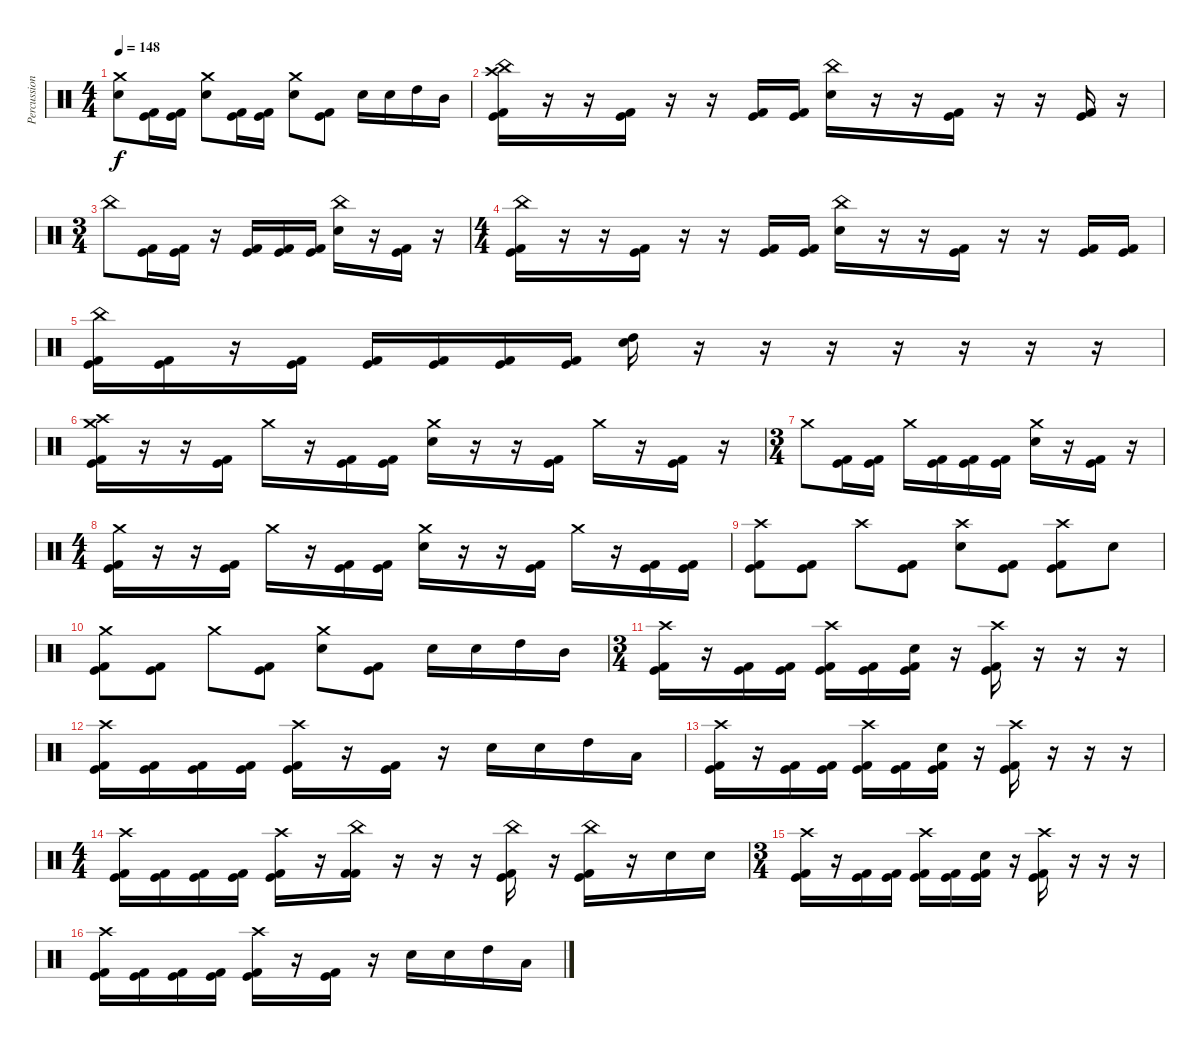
\track ("Percussioni" "Percussion") {instrument percussion}
\staff {score}
\articulation defaults
\ts (4 4)
\tempo 148
\clef neutral
\ks c
("Crash medium (hit)" "Snare (hit) 2").8{dy f} ("Kick (hit)" "Kick (hit) 2").16 ("Kick (hit)" "Kick (hit) 2").16 ("Crash medium (hit)" "Snare (hit) 2").8 ("Kick (hit)" "Kick (hit) 2").16 ("Kick (hit)" "Kick (hit) 2").16 ("Crash medium (hit)" "Snare (hit) 2").8 ("Kick (hit)" "Kick (hit) 2").8 "Snare (hit) 2".16 "Snare (hit) 2".16 "High Tom (hit)".16 "Mid Tom (hit)".16 |
("Crash high (hit)" "China (hit)" "Kick (hit)" "Kick (hit) 2").16 r.16 r.16 ("Kick (hit)" "Kick (hit) 2").16 r.16 r.16 ("Kick (hit)" "Kick (hit) 2").16 ("Kick (hit)" "Kick (hit) 2").16 ("China (hit)" "Snare (hit) 2").16 r.16 r.16 ("Kick (hit)" "Kick (hit) 2").16 r.16 r.16 ("Kick (hit)" "Kick (hit) 2").16 r.16 |
\ts (3 4)
"China (hit)".8 ("Kick (hit)" "Kick (hit) 2").16 ("Kick (hit)" "Kick (hit) 2").16 r.16 ("Kick (hit) 2" "Kick (hit)").16 ("Kick (hit)" "Kick (hit) 2").16 ("Kick (hit) 2" "Kick (hit)").16 ("China (hit)" "Snare (hit) 2").16 r.16 ("Kick (hit)" "Kick (hit) 2").16 r.16 |
\ts (4 4)
("China (hit)" "Kick (hit)" "Kick (hit) 2").16 r.16 r.16 ("Kick (hit)" "Kick (hit) 2").16 r.16 r.16 ("Kick (hit)" "Kick (hit) 2").16 ("Kick (hit)" "Kick (hit) 2").16 ("China (hit)" "Snare (hit) 2").16 r.16 r.16 ("Kick (hit)" "Kick (hit) 2").16 r.16 r.16 ("Kick (hit)" "Kick (hit) 2").16 ("Kick (hit)" "Kick (hit) 2").16 |
("China (hit)" "Kick (hit) 2" "Kick (hit)").16 ("Kick (hit)" "Kick (hit) 2").16 r.16 ("Kick (hit)" "Kick (hit) 2").16 ("Kick (hit) 2" "Kick (hit)").16 ("Kick (hit) 2" "Kick (hit)").16 ("Kick (hit)" "Kick (hit) 2").16 ("Kick (hit) 2" "Kick (hit)").16 ("High Tom (hit)" "Snare (hit) 2").16 r.16 r.16 r.16 r.16 r.16 r.16 r.16 |
("Crash high (hit)" "Crash medium (hit)" "Kick (hit)" "Kick (hit) 2").16 r.16 r.16 ("Kick (hit)" "Kick (hit) 2").16 "Crash medium (hit)".16 r.16 ("Kick (hit)" "Kick (hit) 2").16 ("Kick (hit)" "Kick (hit) 2").16 ("Crash medium (hit)" "Snare (hit) 2").16 r.16 r.16 ("Kick (hit)" "Kick (hit) 2").16 "Crash medium (hit)".16 r.16 ("Kick (hit)" "Kick (hit) 2").16 r.16 |
\ts (3 4)
"Crash medium (hit)".8 ("Kick (hit)" "Kick (hit) 2").16 ("Kick (hit)" "Kick (hit) 2").16 "Crash medium (hit)".16 ("Kick (hit) 2" "Kick (hit)").16 ("Kick (hit)" "Kick (hit) 2").16 ("Kick (hit) 2" "Kick (hit)").16 ("Crash medium (hit)" "Snare (hit) 2").16 r.16 ("Kick (hit)" "Kick (hit) 2").16 r.16 |
\ts (4 4)
("Crash medium (hit)" "Kick (hit)" "Kick (hit) 2").16 r.16 r.16 ("Kick (hit)" "Kick (hit) 2").16 "Crash medium (hit)".16 r.16 ("Kick (hit)" "Kick (hit) 2").16 ("Kick (hit)" "Kick (hit) 2").16 ("Crash medium (hit)" "Snare (hit) 2").16 r.16 r.16 ("Kick (hit)" "Kick (hit) 2").16 "Crash medium (hit)".16 r.16 ("Kick (hit)" "Kick (hit) 2").16 ("Kick (hit)" "Kick (hit) 2").16 |
("Crash high (hit)" "Kick (hit)" "Kick (hit) 2").8 ("Kick (hit)" "Kick (hit) 2").8 "Crash high (hit)".8 ("Kick (hit)" "Kick (hit) 2").8 ("Crash high (hit)" "Snare (hit) 2").8 ("Kick (hit)" "Kick (hit) 2").8 ("Crash high (hit)" "Kick (hit) 2" "Kick (hit)").8 "Snare (hit) 2".8 |
("Crash medium (hit)" "Kick (hit)" "Kick (hit) 2").8 ("Kick (hit)" "Kick (hit) 2").8 "Crash medium (hit)".8 ("Kick (hit)" "Kick (hit) 2").8 ("Crash medium (hit)" "Snare (hit) 2").8 ("Kick (hit)" "Kick (hit) 2").8 "Snare (hit) 2".16 "Snare (hit) 2".16 "High Tom (hit)".16 "Mid Tom (hit)".16 |
\ts (3 4)
("Crash high (hit)" "Kick (hit)" "Kick (hit) 2").16 r.16 ("Kick (hit)" "Kick (hit) 2").16 ("Kick (hit)" "Kick (hit) 2").16 ("Crash high (hit)" "Kick (hit)" "Kick (hit) 2").16 ("Kick (hit)" "Kick (hit) 2").16 ("Snare (hit) 2" "Kick (hit)" "Kick (hit) 2").16 r.16 ("Crash high (hit)" "Kick (hit)" "Kick (hit) 2").16 r.16 r.16 r.16 |
("Crash high (hit)" "Kick (hit)" "Kick (hit) 2").16 ("Kick (hit)" "Kick (hit) 2").16 ("Kick (hit)" "Kick (hit) 2").16 ("Kick (hit)" "Kick (hit) 2").16 ("Crash high (hit)" "Kick (hit)" "Kick (hit) 2").16 r.16 ("Kick (hit)" "Kick (hit) 2").16 r.16 "Snare (hit) 2".16 "Snare (hit) 2".16 "High Tom (hit)".16 "Low Tom (hit)".16 |
("Crash high (hit)" "Kick (hit)" "Kick (hit) 2").16 r.16 ("Kick (hit)" "Kick (hit) 2").16 ("Kick (hit)" "Kick (hit) 2").16 ("Crash high (hit)" "Kick (hit)" "Kick (hit) 2").16 ("Kick (hit)" "Kick (hit) 2").16 ("Snare (hit) 2" "Kick (hit)" "Kick (hit) 2").16 r.16 ("Crash high (hit)" "Kick (hit)" "Kick (hit) 2").16 r.16 r.16 r.16 |
\ts (4 4)
("Crash high (hit)" "Kick (hit) 2" "Kick (hit)").16 ("Kick (hit)" "Kick (hit) 2").16 ("Kick (hit)" "Kick (hit) 2").16 ("Kick (hit)" "Kick (hit) 2").16 ("Crash high (hit)" "Kick (hit)" "Kick (hit) 2").16 r.16 ("China (hit)" "Kick (hit) 2" "Kick (hit) 2").16 r.16 r.16 r.16 ("China (hit)" "Kick (hit)" "Kick (hit) 2").16 r.16 ("China (hit)" "Kick (hit)" "Kick (hit) 2").16 r.16 "Snare (hit) 2".16 "Snare (hit) 2".16 |
\ts (3 4)
("Crash high (hit)" "Kick (hit)" "Kick (hit) 2").16 r.16 ("Kick (hit)" "Kick (hit) 2").16 ("Kick (hit)" "Kick (hit) 2").16 ("Crash high (hit)" "Kick (hit)" "Kick (hit) 2").16 ("Kick (hit)" "Kick (hit) 2").16 ("Snare (hit) 2" "Kick (hit)" "Kick (hit) 2").16 r.16 ("Crash high (hit)" "Kick (hit)" "Kick (hit) 2").16 r.16 r.16 r.16 |
("Crash high (hit)" "Kick (hit)" "Kick (hit) 2").16 ("Kick (hit)" "Kick (hit) 2").16 ("Kick (hit)" "Kick (hit) 2").16 ("Kick (hit)" "Kick (hit) 2").16 ("Crash high (hit)" "Kick (hit)" "Kick (hit) 2").16 r.16 ("Kick (hit)" "Kick (hit) 2").16 r.16 "Snare (hit) 2".16 "Snare (hit) 2".16 "High Tom (hit)".16 "Low Tom (hit)".16
